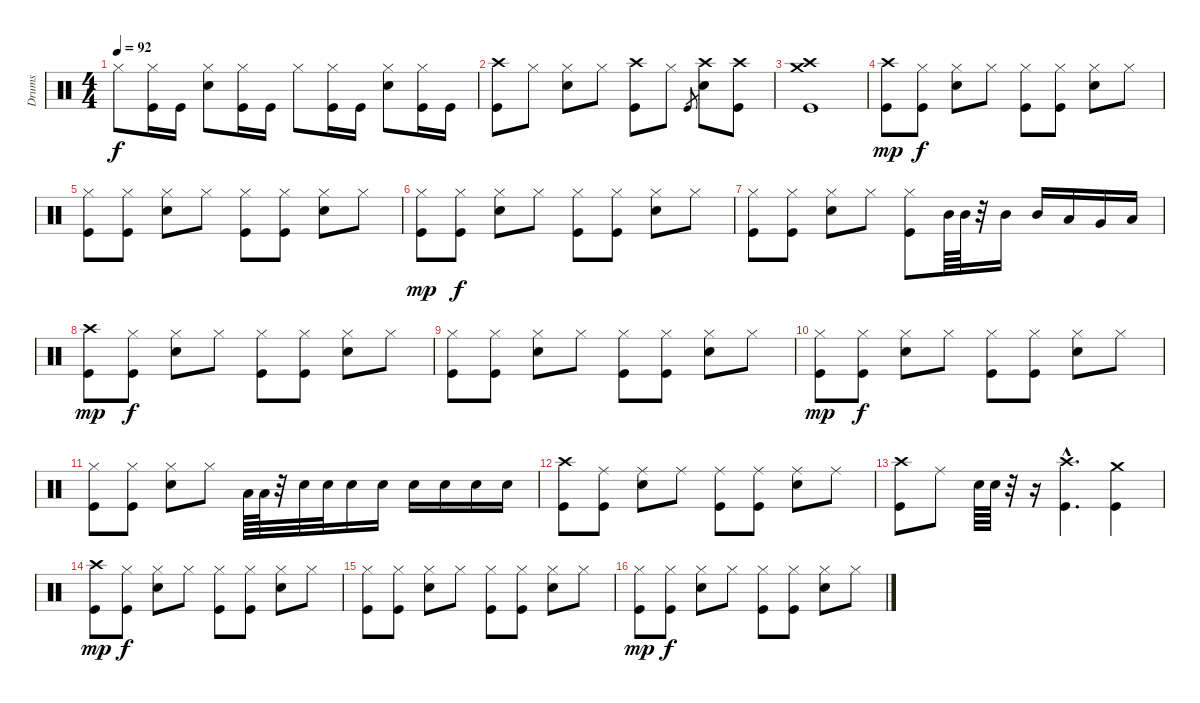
\track ("Drums" "Drums") {instrument percussion}
\staff {score}
\articulation defaults
\ts (4 4)
\tempo 92
\clef neutral
\ks c "Hi-Hat (closed)".8{dy f}
("Hi-Hat (closed)" "Kick (hit)").16 "Kick (hit)".16 ("Hi-Hat (closed)" "Snare (hit) 2").8 ("Hi-Hat (closed)" "Kick (hit)").16 "Kick (hit)".16 "Hi-Hat (closed)".8 ("Hi-Hat (closed)" "Kick (hit)").16 "Kick (hit)".16 ("Hi-Hat (closed)" "Snare (hit) 2").8 ("Hi-Hat (closed)" "Kick (hit)").16 "Kick (hit)".16 |
("Crash high (hit)" "Kick (hit)").8 "Hi-Hat (closed)".8 ("Hi-Hat (closed)" "Snare (hit) 2").8 "Hi-Hat (closed)".8 ("Crash high (hit)" "Kick (hit)").8 "Hi-Hat (closed)".8 "Kick (hit)".8{gr} ("Crash high (hit)" "Snare (hit) 2").8 ("Crash high (hit)" "Kick (hit)").8 |
("Crash high (hit)" "Crash medium (hit)" "Kick (hit)").1 |
("Crash high (hit)" "Kick (hit)").8{dy mp} ("Hi-Hat (closed)" "Kick (hit)").8{dy f} ("Hi-Hat (closed)" "Snare (hit) 2").8 "Hi-Hat (closed)".8 ("Hi-Hat (closed)" "Kick (hit)").8 ("Hi-Hat (closed)" "Kick (hit)").8 ("Hi-Hat (closed)" "Snare (hit) 2").8 "Hi-Hat (closed)".8 |
("Hi-Hat (closed)" "Kick (hit)").8 ("Hi-Hat (closed)" "Kick (hit)").8 ("Hi-Hat (closed)" "Snare (hit) 2").8 "Hi-Hat (closed)".8 ("Hi-Hat (closed)" "Kick (hit)").8 ("Hi-Hat (closed)" "Kick (hit)").8 ("Hi-Hat (closed)" "Snare (hit) 2").8 "Hi-Hat (closed)".8 |
("Hi-Hat (closed)" "Kick (hit)").8{dy mp} ("Hi-Hat (closed)" "Kick (hit)").8{dy f} ("Hi-Hat (closed)" "Snare (hit) 2").8 "Hi-Hat (closed)".8 ("Hi-Hat (closed)" "Kick (hit)").8 ("Hi-Hat (closed)" "Kick (hit)").8 ("Hi-Hat (closed)" "Snare (hit) 2").8 "Hi-Hat (closed)".8 |
("Hi-Hat (closed)" "Kick (hit)").8 ("Hi-Hat (closed)" "Kick (hit)").8 ("Hi-Hat (closed)" "Snare (hit) 2").8 "Hi-Hat (closed)".8 ("Hi-Hat (closed)" "Kick (hit)").8 "Mid Tom (hit)".64 "Mid Tom (hit)".64 r.32 "Mid Tom (hit)".16 "Mid Tom (hit)".16 "Low Tom (hit)".16 "Very Low Tom (hit)".16 "Low Floor Tom (hit)".16 |
("Crash high (hit)" "Kick (hit)").8{dy mp} ("Hi-Hat (closed)" "Kick (hit)").8{dy f} ("Hi-Hat (closed)" "Snare (hit) 2").8 "Hi-Hat (closed)".8 ("Hi-Hat (closed)" "Kick (hit)").8 ("Hi-Hat (closed)" "Kick (hit)").8 ("Hi-Hat (closed)" "Snare (hit) 2").8 "Hi-Hat (closed)".8 |
("Hi-Hat (closed)" "Kick (hit)").8 ("Hi-Hat (closed)" "Kick (hit)").8 ("Hi-Hat (closed)" "Snare (hit) 2").8 "Hi-Hat (closed)".8 ("Hi-Hat (closed)" "Kick (hit)").8 ("Hi-Hat (closed)" "Kick (hit)").8 ("Hi-Hat (closed)" "Snare (hit) 2").8 "Hi-Hat (closed)".8 |
("Hi-Hat (closed)" "Kick (hit)").8{dy mp} ("Hi-Hat (closed)" "Kick (hit)").8{dy f} ("Hi-Hat (closed)" "Snare (hit) 2").8 "Hi-Hat (closed)".8 ("Hi-Hat (closed)" "Kick (hit)").8 ("Hi-Hat (closed)" "Kick (hit)").8 ("Hi-Hat (closed)" "Snare (hit) 2").8 "Hi-Hat (closed)".8 |
("Hi-Hat (closed)" "Kick (hit)").8 ("Hi-Hat (closed)" "Kick (hit)").8 ("Hi-Hat (closed)" "Snare (hit) 2").8 "Hi-Hat (closed)".8 "Low Tom (hit)".64 "Low Tom (hit)".64 r.32 "Snare (hit) 2".32 "Snare (hit) 2".32 "Snare (hit) 2".16 "Snare (hit) 2".16 "Snare (hit) 2".16 "Snare (hit) 2".16 "Snare (hit) 2".16 "Snare (hit) 2".16 |
("Crash high (hit)" "Kick (hit)").8 ("Ride (middle)" "Kick (hit)").8 ("Ride (middle)" "Snare (hit) 2").8 "Ride (middle)".8 ("Ride (middle)" "Kick (hit)").8 ("Ride (middle)" "Kick (hit)").8 ("Ride (middle)" "Snare (hit) 2").8 "Ride (middle)".8 |
("Crash high (hit)" "Kick (hit)").8 "Ride (middle)".8 "Snare (hit) 2".64 "Snare (hit) 2".64 r.32 r.16 ("Crash high (hit)"{hac} "Kick (hit)"{hac}).4{d} ("Crash medium (hit)" "Kick (hit)").4 |
("Crash high (hit)" "Kick (hit)").8{dy mp} ("Hi-Hat (closed)" "Kick (hit)").8{dy f} ("Hi-Hat (closed)" "Snare (hit) 2").8 "Hi-Hat (closed)".8 ("Hi-Hat (closed)" "Kick (hit)").8 ("Hi-Hat (closed)" "Kick (hit)").8 ("Hi-Hat (closed)" "Snare (hit) 2").8 "Hi-Hat (closed)".8 |
("Hi-Hat (closed)" "Kick (hit)").8 ("Hi-Hat (closed)" "Kick (hit)").8 ("Hi-Hat (closed)" "Snare (hit) 2").8 "Hi-Hat (closed)".8 ("Hi-Hat (closed)" "Kick (hit)").8 ("Hi-Hat (closed)" "Kick (hit)").8 ("Hi-Hat (closed)" "Snare (hit) 2").8 "Hi-Hat (closed)".8 |
("Hi-Hat (closed)" "Kick (hit)").8{dy mp} ("Hi-Hat (closed)" "Kick (hit)").8{dy f} ("Hi-Hat (closed)" "Snare (hit) 2").8 "Hi-Hat (closed)".8 ("Hi-Hat (closed)" "Kick (hit)").8 ("Hi-Hat (closed)" "Kick (hit)").8 ("Hi-Hat (closed)" "Snare (hit) 2").8 "Hi-Hat (closed)".8
